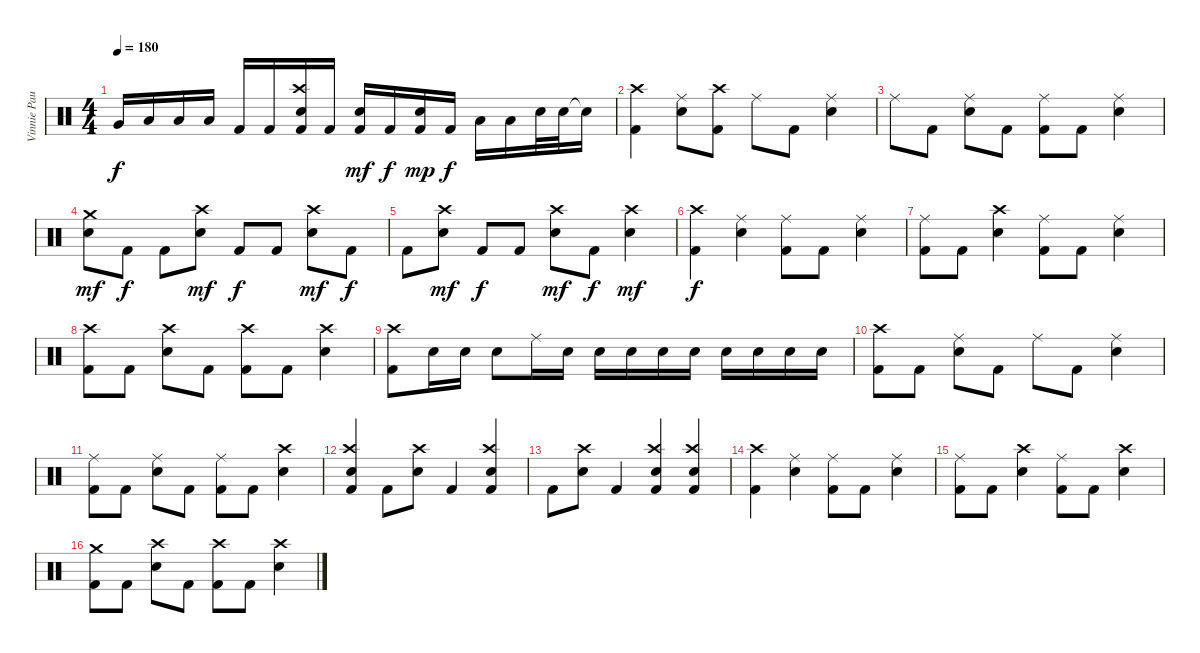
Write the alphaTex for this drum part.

\track ("Vinnie Paul" "Vinnie Pau") {instrument percussion}
\staff {score}
\articulation defaults
\ts (4 4)
\tempo 180
\clef neutral
\ks c "Very Low Tom (hit)".16{dy f} "Low Floor Tom (hit)".16 "Low Floor Tom (hit)".16 "Low Floor Tom (hit)".16 "Kick (hit) 2".16 "Kick (hit) 2".16
("Crash high (hit)" "Electric Snare (hit)" "Kick (hit) 2").16 "Kick (hit) 2".16 ("Electric Snare (hit)" "Kick (hit) 2").16{dy mf} "Kick (hit) 2".16{dy f} ("Electric Snare (hit)" "Kick (hit) 2").16{dy mp} "Kick (hit) 2".16{dy f} "Low Floor Tom (hit)".16 "Low Floor Tom (hit)".16 "Electric Snare (hit)".32 "Electric Snare (hit)".32 "Snare (hit)"{t}.16 |
("Crash high (hit)" "Kick (hit) 2").4 ("Ride (middle)" "Electric Snare (hit)").8 ("Crash high (hit)" "Kick (hit) 2").8 "Ride (middle)".8 "Kick (hit) 2".8 ("Ride (middle)" "Electric Snare (hit)").4 |
"Ride (middle)".8 "Kick (hit) 2".8 ("Ride (middle)" "Electric Snare (hit)").8 "Kick (hit) 2".8 ("Ride (middle)" "Kick (hit) 2").8 "Kick (hit) 2".8 ("Ride (middle)" "Electric Snare (hit)").4 |
("Crash medium (hit)" "Electric Snare (hit)").8{dy mf} "Kick (hit) 2".8{dy f} "Kick (hit) 2".8 ("Crash high (hit)" "Electric Snare (hit)").8{dy mf} "Kick (hit) 2".8{dy f} "Kick (hit) 2".8 ("Crash high (hit)" "Electric Snare (hit)").8{dy mf} "Kick (hit) 2".8{dy f} |
"Kick (hit) 2".8 ("Crash high (hit)" "Electric Snare (hit)").8{dy mf} "Kick (hit) 2".8{dy f} "Kick (hit) 2".8 ("Crash high (hit)" "Electric Snare (hit)").8{dy mf} "Kick (hit) 2".8{dy f} ("Crash high (hit)" "Electric Snare (hit)").4{dy mf} |
("Crash high (hit)" "Kick (hit) 2").4{dy f} ("Ride (middle)" "Electric Snare (hit)").4 ("Ride (middle)" "Kick (hit) 2").8 "Kick (hit) 2".8 ("Ride (middle)" "Electric Snare (hit)").4 |
("Ride (middle)" "Kick (hit) 2").8 "Kick (hit) 2".8 ("Crash high (hit)" "Electric Snare (hit)").4 ("Ride (middle)" "Kick (hit) 2").8 "Kick (hit) 2".8 ("Ride (middle)" "Electric Snare (hit)").4 |
("Crash high (hit)" "Kick (hit) 2").8 "Kick (hit) 2".8 ("Crash high (hit)" "Electric Snare (hit)").8 "Kick (hit) 2".8 ("Crash high (hit)" "Kick (hit) 2").8 "Kick (hit) 2".8 ("Crash high (hit)" "Electric Snare (hit)").4 |
("Crash high (hit)" "Kick (hit) 2").8 "Electric Snare (hit)".16 "Electric Snare (hit)".16 "Electric Snare (hit)".8 "Ride (middle)".16 "Electric Snare (hit)".16 "Electric Snare (hit)".16 "Electric Snare (hit)".16 "Electric Snare (hit)".16 "Electric Snare (hit)".16 "Electric Snare (hit)".16 "Electric Snare (hit)".16 "Electric Snare (hit)".16 "Electric Snare (hit)".16 |
("Crash high (hit)" "Kick (hit) 2").8 "Kick (hit) 2".8 ("Ride (middle)" "Electric Snare (hit)").8 "Kick (hit) 2".8 "Ride (middle)".8 "Kick (hit) 2".8 ("Ride (middle)" "Electric Snare (hit)").4 |
("Ride (middle)" "Kick (hit) 2").8 "Kick (hit) 2".8 ("Ride (middle)" "Electric Snare (hit)").8 "Kick (hit) 2".8 ("Ride (middle)" "Kick (hit) 2").8 "Kick (hit) 2".8 ("Crash high (hit)" "Electric Snare (hit)").4 |
("Crash high (hit)" "Electric Snare (hit)" "Kick (hit) 2").4 "Kick (hit) 2".8 ("Crash high (hit)" "Electric Snare (hit)").8 "Kick (hit) 2".4 ("Crash high (hit)" "Electric Snare (hit)" "Kick (hit) 2").4 |
"Kick (hit) 2".8 ("Crash high (hit)" "Electric Snare (hit)").8 "Kick (hit) 2".4 ("Crash high (hit)" "Electric Snare (hit)" "Kick (hit) 2").4 ("Crash high (hit)" "Electric Snare (hit)" "Kick (hit) 2").4 |
("Crash high (hit)" "Kick (hit) 2").4 ("Ride (middle)" "Electric Snare (hit)").4 ("Ride (middle)" "Kick (hit) 2").8 "Kick (hit) 2".8 ("Ride (middle)" "Electric Snare (hit)").4 |
("Ride (middle)" "Kick (hit) 2").8 "Kick (hit) 2".8 ("Crash high (hit)" "Electric Snare (hit)").4 ("Ride (middle)" "Kick (hit) 2").8 "Kick (hit) 2".8 ("Crash high (hit)" "Electric Snare (hit)").4 |
("Crash medium (hit)" "Kick (hit) 2").8 "Kick (hit) 2".8 ("Crash high (hit)" "Electric Snare (hit)").8 "Kick (hit) 2".8 ("Crash high (hit)" "Kick (hit) 2").8 "Kick (hit) 2".8 ("Crash high (hit)" "Electric Snare (hit)").4
